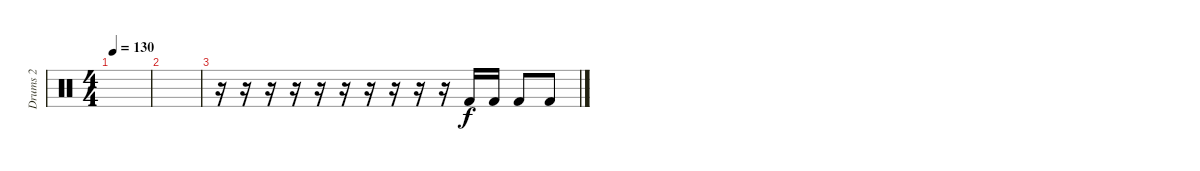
\track ("Drums 2" "Drums 2") {instrument percussion}
\staff {score}
\articulation defaults
\ts (4 4)
\tempo 130
\clef neutral
\ks c
|
|
r.16{volume 16} r.16 r.16 r.16 r.16 r.16 r.16 r.16 r.16 r.16 "Kick (hit) 2".16 "Kick (hit) 2".16 "Kick (hit) 2".8 "Kick (hit) 2".8
